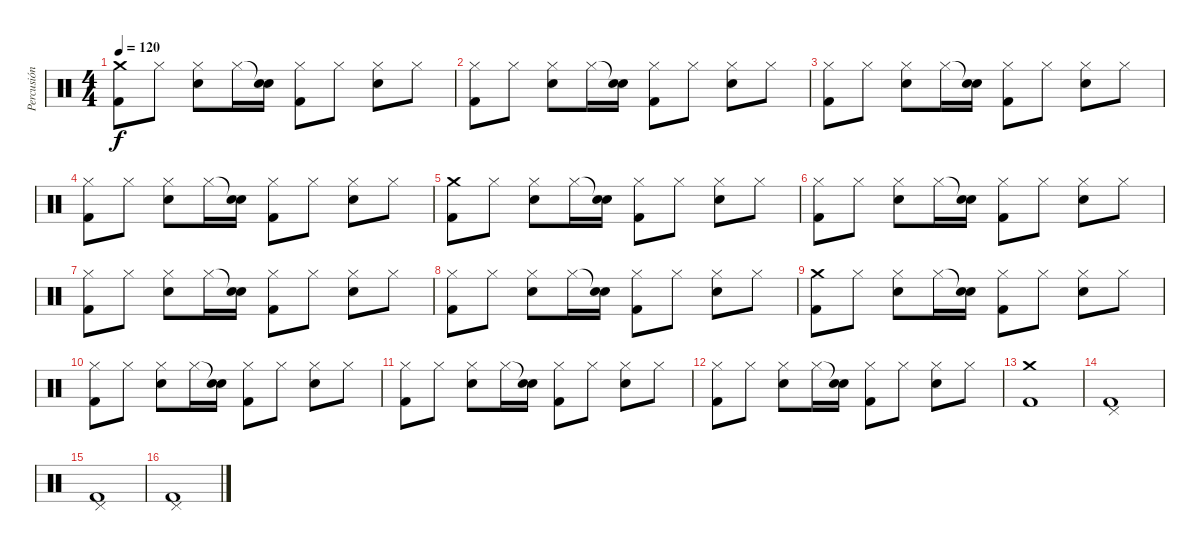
\track ("Percusión" "Percusión") {instrument percussion}
\staff {score}
\articulation defaults
\ts (4 4)
\tempo 120
\clef neutral
\ks c
("Crash medium (hit)" "Kick (hit) 2").8{dy f} "Hi-Hat (closed)".8 ("Hi-Hat (closed)" "Electric Snare (hit)").8 "Hi-Hat (closed)".16 ("Snare (hit)"{t} "Electric Snare (hit)").16 ("Hi-Hat (closed)" "Kick (hit) 2").8 "Hi-Hat (closed)".8 ("Hi-Hat (closed)" "Electric Snare (hit)").8 "Hi-Hat (closed)".8 |
("Hi-Hat (closed)" "Kick (hit) 2").8 "Hi-Hat (closed)".8 ("Hi-Hat (closed)" "Electric Snare (hit)").8 "Hi-Hat (closed)".16 ("Snare (hit)"{t} "Electric Snare (hit)").16 ("Hi-Hat (closed)" "Kick (hit) 2").8 "Hi-Hat (closed)".8 ("Hi-Hat (closed)" "Electric Snare (hit)").8 "Hi-Hat (closed)".8 |
("Hi-Hat (closed)" "Kick (hit) 2").8 "Hi-Hat (closed)".8 ("Hi-Hat (closed)" "Electric Snare (hit)").8 "Hi-Hat (closed)".16 ("Snare (hit)"{t} "Electric Snare (hit)").16 ("Hi-Hat (closed)" "Kick (hit) 2").8 "Hi-Hat (closed)".8 ("Hi-Hat (closed)" "Electric Snare (hit)").8 "Hi-Hat (closed)".8 |
("Hi-Hat (closed)" "Kick (hit) 2").8 "Hi-Hat (closed)".8 ("Hi-Hat (closed)" "Electric Snare (hit)").8 "Hi-Hat (closed)".16 ("Snare (hit)"{t} "Electric Snare (hit)").16 ("Hi-Hat (closed)" "Kick (hit) 2").8 "Hi-Hat (closed)".8 ("Hi-Hat (closed)" "Electric Snare (hit)").8 "Hi-Hat (closed)".8 |
("Crash medium (hit)" "Kick (hit) 2").8 "Hi-Hat (closed)".8 ("Hi-Hat (closed)" "Electric Snare (hit)").8 "Hi-Hat (closed)".16 ("Snare (hit)"{t} "Electric Snare (hit)").16 ("Hi-Hat (closed)" "Kick (hit) 2").8 "Hi-Hat (closed)".8 ("Hi-Hat (closed)" "Electric Snare (hit)").8 "Hi-Hat (closed)".8 |
("Hi-Hat (closed)" "Kick (hit) 2").8 "Hi-Hat (closed)".8 ("Hi-Hat (closed)" "Electric Snare (hit)").8 "Hi-Hat (closed)".16 ("Snare (hit)"{t} "Electric Snare (hit)").16 ("Hi-Hat (closed)" "Kick (hit) 2").8 "Hi-Hat (closed)".8 ("Hi-Hat (closed)" "Electric Snare (hit)").8 "Hi-Hat (closed)".8 |
("Hi-Hat (closed)" "Kick (hit) 2").8 "Hi-Hat (closed)".8 ("Hi-Hat (closed)" "Electric Snare (hit)").8 "Hi-Hat (closed)".16 ("Snare (hit)"{t} "Electric Snare (hit)").16 ("Hi-Hat (closed)" "Kick (hit) 2").8 "Hi-Hat (closed)".8 ("Hi-Hat (closed)" "Electric Snare (hit)").8 "Hi-Hat (closed)".8 |
("Hi-Hat (closed)" "Kick (hit) 2").8 "Hi-Hat (closed)".8 ("Hi-Hat (closed)" "Electric Snare (hit)").8 "Hi-Hat (closed)".16 ("Snare (hit)"{t} "Electric Snare (hit)").16 ("Hi-Hat (closed)" "Kick (hit) 2").8 "Hi-Hat (closed)".8 ("Hi-Hat (closed)" "Electric Snare (hit)").8 "Hi-Hat (closed)".8 |
("Crash medium (hit)" "Kick (hit) 2").8 "Hi-Hat (closed)".8 ("Hi-Hat (closed)" "Electric Snare (hit)").8 "Hi-Hat (closed)".16 ("Snare (hit)"{t} "Electric Snare (hit)").16 ("Hi-Hat (closed)" "Kick (hit) 2").8 "Hi-Hat (closed)".8 ("Hi-Hat (closed)" "Electric Snare (hit)").8 "Hi-Hat (closed)".8 |
("Hi-Hat (closed)" "Kick (hit) 2").8 "Hi-Hat (closed)".8 ("Hi-Hat (closed)" "Electric Snare (hit)").8 "Hi-Hat (closed)".16 ("Snare (hit)"{t} "Electric Snare (hit)").16 ("Hi-Hat (closed)" "Kick (hit) 2").8 "Hi-Hat (closed)".8 ("Hi-Hat (closed)" "Electric Snare (hit)").8 "Hi-Hat (closed)".8 |
("Hi-Hat (closed)" "Kick (hit) 2").8 "Hi-Hat (closed)".8 ("Hi-Hat (closed)" "Electric Snare (hit)").8 "Hi-Hat (closed)".16 ("Snare (hit)"{t} "Electric Snare (hit)").16 ("Hi-Hat (closed)" "Kick (hit) 2").8 "Hi-Hat (closed)".8 ("Hi-Hat (closed)" "Electric Snare (hit)").8 "Hi-Hat (closed)".8 |
("Hi-Hat (closed)" "Kick (hit) 2").8 "Hi-Hat (closed)".8 ("Hi-Hat (closed)" "Electric Snare (hit)").8 "Hi-Hat (closed)".16 ("Snare (hit)"{t} "Electric Snare (hit)").16 ("Hi-Hat (closed)" "Kick (hit) 2").8 "Hi-Hat (closed)".8 ("Hi-Hat (closed)" "Electric Snare (hit)").8 "Hi-Hat (closed)".8 |
("Crash medium (hit)" "Kick (hit) 2").1 |
("Pedal Hi-Hat (hit)" "Kick (hit) 2").1 |
("Pedal Hi-Hat (hit)" "Kick (hit) 2").1 |
("Pedal Hi-Hat (hit)" "Kick (hit) 2").1
